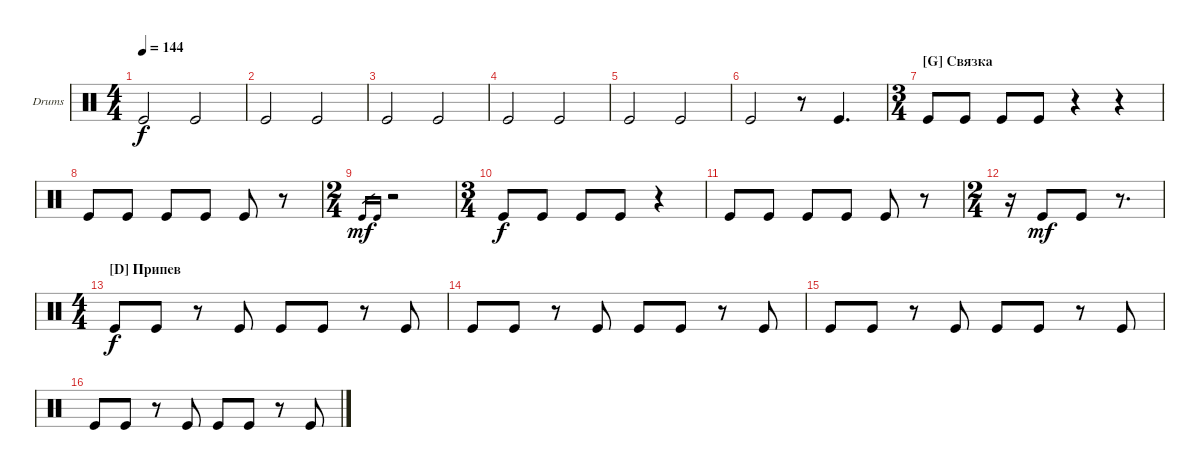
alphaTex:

\defaultSystemsLayout 4
\bracketExtendMode groupsimilarinstruments
\firstSystemTrackNameOrientation horizontal
\otherSystemsTrackNameOrientation horizontal
\track ("Kick" "Drums") {instrument percussion}
\staff {score}
\articulation defaults
\ts (4 4)
\tempo 144
\clef neutral
\ks c "Kick (hit)".2{dy f} "Kick (hit)".2
|
"Kick (hit)".2 "Kick (hit)".2 |
"Kick (hit)".2 "Kick (hit)".2 |
"Kick (hit)".2 "Kick (hit)".2 |
"Kick (hit)".2 "Kick (hit)".2 |
"Kick (hit)".2 r.8 "Kick (hit)".4{d} |
\ts (3 4)
\section ("G" "Связка")
"Kick (hit)".8 "Kick (hit)".8 "Kick (hit)".8 "Kick (hit)".8 r.4 r.4 |
"Kick (hit)".8 "Kick (hit)".8 "Kick (hit)".8 "Kick (hit)".8 "Kick (hit)".8 r.8 |
\ts (2 4)
"Kick (hit)".16{gr dy mf} "Kick (hit)".16{gr} r.2 |
\ts (3 4)
"Kick (hit)".8{dy f} "Kick (hit)".8 "Kick (hit)".8 "Kick (hit)".8 r.4 |
"Kick (hit)".8 "Kick (hit)".8 "Kick (hit)".8 "Kick (hit)".8 "Kick (hit)".8 r.8 |
\ts (2 4)
r.16 "Kick (hit)".8{dy mf} "Kick (hit)".8 r.8{d} |
\ts (4 4)
\section ("D" "Припев")
"Kick (hit)".8{dy f} "Kick (hit)".8 r.8 "Kick (hit)".8 "Kick (hit)".8 "Kick (hit)".8 r.8 "Kick (hit)".8 |
"Kick (hit)".8 "Kick (hit)".8 r.8 "Kick (hit)".8 "Kick (hit)".8 "Kick (hit)".8 r.8 "Kick (hit)".8 |
"Kick (hit)".8 "Kick (hit)".8 r.8 "Kick (hit)".8 "Kick (hit)".8 "Kick (hit)".8 r.8 "Kick (hit)".8 |
"Kick (hit)".8 "Kick (hit)".8 r.8 "Kick (hit)".8 "Kick (hit)".8 "Kick (hit)".8 r.8 "Kick (hit)".8
